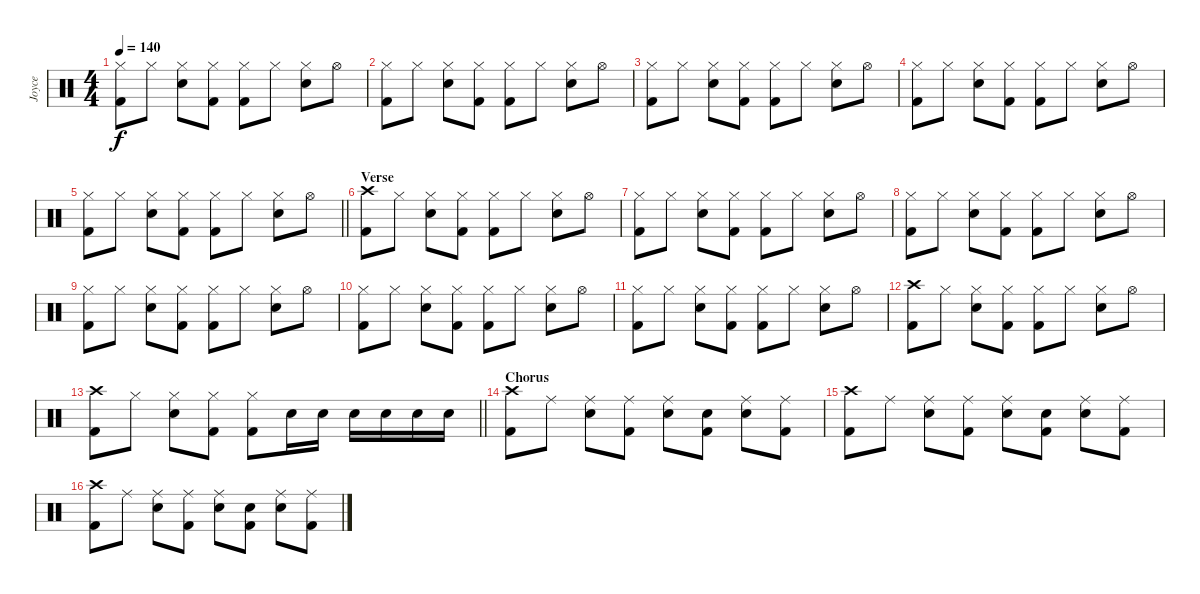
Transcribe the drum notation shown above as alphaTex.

\track ("Joyce" "Joyce") {instrument percussion}
\staff {score}
\articulation defaults
\ts (4 4)
\tempo 140
\clef neutral
\ks c
("Hi-Hat (closed)" "Kick (hit) 2").8{dy f} "Hi-Hat (closed)".8 ("Hi-Hat (closed)" "Snare (hit) 2").8 ("Hi-Hat (closed)" "Kick (hit) 2").8 ("Hi-Hat (closed)" "Kick (hit) 2").8 "Hi-Hat (closed)".8 ("Hi-Hat (closed)" "Snare (hit) 2").8 "Hi-Hat (open)".8 |
("Hi-Hat (closed)" "Kick (hit) 2").8 "Hi-Hat (closed)".8 ("Hi-Hat (closed)" "Snare (hit) 2").8 ("Hi-Hat (closed)" "Kick (hit) 2").8 ("Hi-Hat (closed)" "Kick (hit) 2").8 "Hi-Hat (closed)".8 ("Hi-Hat (closed)" "Snare (hit) 2").8 "Hi-Hat (open)".8 |
("Hi-Hat (closed)" "Kick (hit) 2").8 "Hi-Hat (closed)".8 ("Hi-Hat (closed)" "Snare (hit) 2").8 ("Hi-Hat (closed)" "Kick (hit) 2").8 ("Hi-Hat (closed)" "Kick (hit) 2").8 "Hi-Hat (closed)".8 ("Hi-Hat (closed)" "Snare (hit) 2").8 "Hi-Hat (open)".8 |
("Hi-Hat (closed)" "Kick (hit) 2").8 "Hi-Hat (closed)".8 ("Hi-Hat (closed)" "Snare (hit) 2").8 ("Hi-Hat (closed)" "Kick (hit) 2").8 ("Hi-Hat (closed)" "Kick (hit) 2").8 "Hi-Hat (closed)".8 ("Hi-Hat (closed)" "Snare (hit) 2").8 "Hi-Hat (open)".8 |
\barLineRight lightlight
("Hi-Hat (closed)" "Kick (hit) 2").8 "Hi-Hat (closed)".8 ("Hi-Hat (closed)" "Snare (hit) 2").8 ("Hi-Hat (closed)" "Kick (hit) 2").8 ("Hi-Hat (closed)" "Kick (hit) 2").8 "Hi-Hat (closed)".8 ("Hi-Hat (closed)" "Snare (hit) 2").8 "Hi-Hat (open)".8 |
\section ("" "Verse")
("Crash high (hit)" "Kick (hit) 2").8 "Hi-Hat (closed)".8 ("Hi-Hat (closed)" "Snare (hit) 2").8 ("Hi-Hat (closed)" "Kick (hit) 2").8 ("Hi-Hat (closed)" "Kick (hit) 2").8 "Hi-Hat (closed)".8 ("Hi-Hat (closed)" "Snare (hit) 2").8 "Hi-Hat (open)".8 |
("Hi-Hat (closed)" "Kick (hit) 2").8 "Hi-Hat (closed)".8 ("Hi-Hat (closed)" "Snare (hit) 2").8 ("Hi-Hat (closed)" "Kick (hit) 2").8 ("Hi-Hat (closed)" "Kick (hit) 2").8 "Hi-Hat (closed)".8 ("Hi-Hat (closed)" "Snare (hit) 2").8 "Hi-Hat (open)".8 |
("Hi-Hat (closed)" "Kick (hit) 2").8 "Hi-Hat (closed)".8 ("Hi-Hat (closed)" "Snare (hit) 2").8 ("Hi-Hat (closed)" "Kick (hit) 2").8 ("Hi-Hat (closed)" "Kick (hit) 2").8 "Hi-Hat (closed)".8 ("Hi-Hat (closed)" "Snare (hit) 2").8 "Hi-Hat (open)".8 |
("Hi-Hat (closed)" "Kick (hit) 2").8 "Hi-Hat (closed)".8 ("Hi-Hat (closed)" "Snare (hit) 2").8 ("Hi-Hat (closed)" "Kick (hit) 2").8 ("Hi-Hat (closed)" "Kick (hit) 2").8 "Hi-Hat (closed)".8 ("Hi-Hat (closed)" "Snare (hit) 2").8 "Hi-Hat (open)".8 |
("Hi-Hat (closed)" "Kick (hit) 2").8 "Hi-Hat (closed)".8 ("Hi-Hat (closed)" "Snare (hit) 2").8 ("Hi-Hat (closed)" "Kick (hit) 2").8 ("Hi-Hat (closed)" "Kick (hit) 2").8 "Hi-Hat (closed)".8 ("Hi-Hat (closed)" "Snare (hit) 2").8 "Hi-Hat (open)".8 |
("Hi-Hat (closed)" "Kick (hit) 2").8 "Hi-Hat (closed)".8 ("Hi-Hat (closed)" "Snare (hit) 2").8 ("Hi-Hat (closed)" "Kick (hit) 2").8 ("Hi-Hat (closed)" "Kick (hit) 2").8 "Hi-Hat (closed)".8 ("Hi-Hat (closed)" "Snare (hit) 2").8 "Hi-Hat (open)".8 |
("Crash high (hit)" "Kick (hit) 2").8 "Hi-Hat (closed)".8 ("Hi-Hat (closed)" "Snare (hit) 2").8 ("Hi-Hat (closed)" "Kick (hit) 2").8 ("Hi-Hat (closed)" "Kick (hit) 2").8 "Hi-Hat (closed)".8 ("Hi-Hat (closed)" "Snare (hit) 2").8 "Hi-Hat (open)".8 |
\barLineRight lightlight
("Crash high (hit)" "Kick (hit) 2").8 "Hi-Hat (closed)".8 ("Hi-Hat (closed)" "Snare (hit) 2").8 ("Hi-Hat (closed)" "Kick (hit) 2").8 ("Hi-Hat (closed)" "Kick (hit) 2").8 "Snare (hit) 2".16 "Snare (hit) 2".16 "Snare (hit) 2".16 "Snare (hit) 2".16 "Snare (hit) 2".16 "Snare (hit) 2".16 |
\section ("" "Chorus")
("Crash high (hit)" "Kick (hit) 2").8 "Ride (middle)".8 ("Ride (middle)" "Snare (hit) 2").8 ("Ride (middle)" "Kick (hit) 2").8 ("Ride (middle)" "Snare (hit) 2").8 ("Snare (hit)" "Kick (hit) 2").8 ("Ride (middle)" "Snare (hit) 2").8 ("Ride (middle)" "Kick (hit) 2").8 |
("Crash high (hit)" "Kick (hit) 2").8 "Ride (middle)".8 ("Ride (middle)" "Snare (hit) 2").8 ("Ride (middle)" "Kick (hit) 2").8 ("Ride (middle)" "Snare (hit) 2").8 ("Snare (hit)" "Kick (hit) 2").8 ("Ride (middle)" "Snare (hit) 2").8 ("Ride (middle)" "Kick (hit) 2").8 |
("Crash high (hit)" "Kick (hit) 2").8 "Ride (middle)".8 ("Ride (middle)" "Snare (hit) 2").8 ("Ride (middle)" "Kick (hit) 2").8 ("Ride (middle)" "Snare (hit) 2").8 ("Snare (hit)" "Kick (hit) 2").8 ("Ride (middle)" "Snare (hit) 2").8 ("Ride (middle)" "Kick (hit) 2").8
